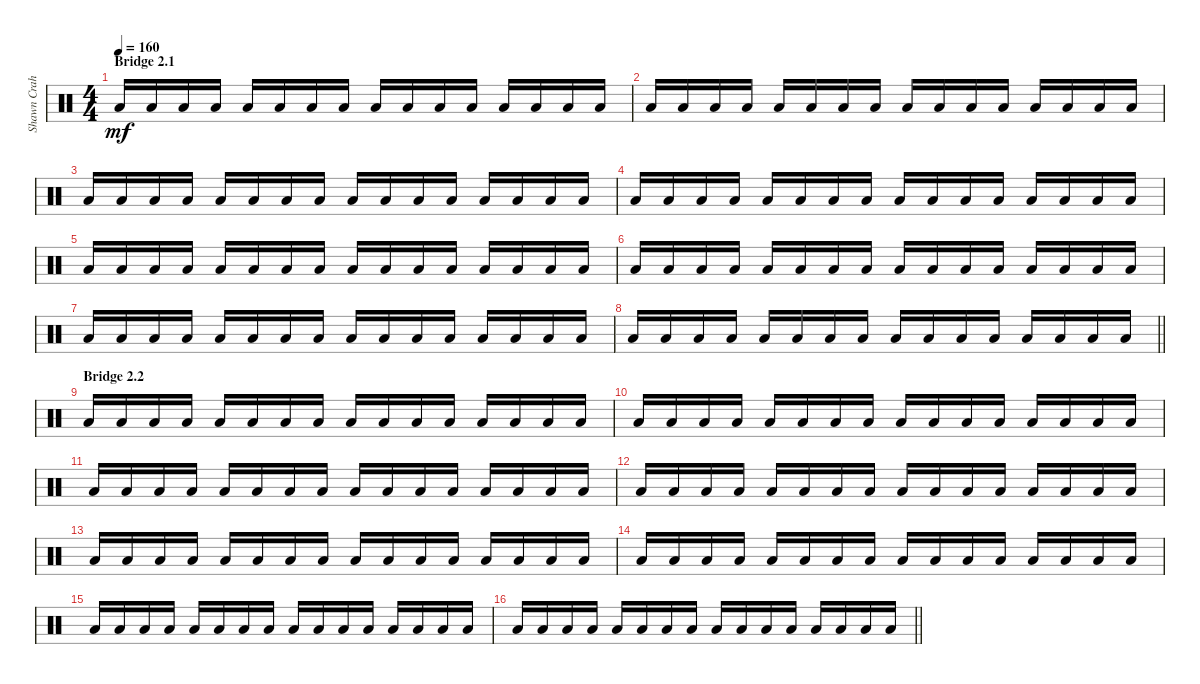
\track ("Shawn Crahan" "Shawn Crah") {instrument percussion}
\staff {score}
\articulation defaults
\ts (4 4)
\section ("" "Bridge 2.1")
\tempo 160
\clef neutral
\ks c "Low Floor Tom (hit)".16{dy mf} "Low Floor Tom (hit)".16 "Low Floor Tom (hit)".16 "Low Floor Tom (hit)".16 "Low Floor Tom (hit)".16 "Low Floor Tom (hit)".16 "Low Floor Tom (hit)".16 "Low Floor Tom (hit)".16 "Low Floor Tom (hit)".16 "Low Floor Tom (hit)".16 "Low Floor Tom (hit)".16 "Low Floor Tom (hit)".16 "Low Floor Tom (hit)".16 "Low Floor Tom (hit)".16 "Low Floor Tom (hit)".16 "Low Floor Tom (hit)".16
|
"Low Floor Tom (hit)".16 "Low Floor Tom (hit)".16 "Low Floor Tom (hit)".16 "Low Floor Tom (hit)".16 "Low Floor Tom (hit)".16 "Low Floor Tom (hit)".16 "Low Floor Tom (hit)".16 "Low Floor Tom (hit)".16 "Low Floor Tom (hit)".16 "Low Floor Tom (hit)".16 "Low Floor Tom (hit)".16 "Low Floor Tom (hit)".16 "Low Floor Tom (hit)".16 "Low Floor Tom (hit)".16 "Low Floor Tom (hit)".16 "Low Floor Tom (hit)".16 |
"Low Floor Tom (hit)".16 "Low Floor Tom (hit)".16 "Low Floor Tom (hit)".16 "Low Floor Tom (hit)".16 "Low Floor Tom (hit)".16 "Low Floor Tom (hit)".16 "Low Floor Tom (hit)".16 "Low Floor Tom (hit)".16 "Low Floor Tom (hit)".16 "Low Floor Tom (hit)".16 "Low Floor Tom (hit)".16 "Low Floor Tom (hit)".16 "Low Floor Tom (hit)".16 "Low Floor Tom (hit)".16 "Low Floor Tom (hit)".16 "Low Floor Tom (hit)".16 |
"Low Floor Tom (hit)".16 "Low Floor Tom (hit)".16 "Low Floor Tom (hit)".16 "Low Floor Tom (hit)".16 "Low Floor Tom (hit)".16 "Low Floor Tom (hit)".16 "Low Floor Tom (hit)".16 "Low Floor Tom (hit)".16 "Low Floor Tom (hit)".16 "Low Floor Tom (hit)".16 "Low Floor Tom (hit)".16 "Low Floor Tom (hit)".16 "Low Floor Tom (hit)".16 "Low Floor Tom (hit)".16 "Low Floor Tom (hit)".16 "Low Floor Tom (hit)".16 |
"Low Floor Tom (hit)".16 "Low Floor Tom (hit)".16 "Low Floor Tom (hit)".16 "Low Floor Tom (hit)".16 "Low Floor Tom (hit)".16 "Low Floor Tom (hit)".16 "Low Floor Tom (hit)".16 "Low Floor Tom (hit)".16 "Low Floor Tom (hit)".16 "Low Floor Tom (hit)".16 "Low Floor Tom (hit)".16 "Low Floor Tom (hit)".16 "Low Floor Tom (hit)".16 "Low Floor Tom (hit)".16 "Low Floor Tom (hit)".16 "Low Floor Tom (hit)".16 |
"Low Floor Tom (hit)".16 "Low Floor Tom (hit)".16 "Low Floor Tom (hit)".16 "Low Floor Tom (hit)".16 "Low Floor Tom (hit)".16 "Low Floor Tom (hit)".16 "Low Floor Tom (hit)".16 "Low Floor Tom (hit)".16 "Low Floor Tom (hit)".16 "Low Floor Tom (hit)".16 "Low Floor Tom (hit)".16 "Low Floor Tom (hit)".16 "Low Floor Tom (hit)".16 "Low Floor Tom (hit)".16 "Low Floor Tom (hit)".16 "Low Floor Tom (hit)".16 |
"Low Floor Tom (hit)".16 "Low Floor Tom (hit)".16 "Low Floor Tom (hit)".16 "Low Floor Tom (hit)".16 "Low Floor Tom (hit)".16 "Low Floor Tom (hit)".16 "Low Floor Tom (hit)".16 "Low Floor Tom (hit)".16 "Low Floor Tom (hit)".16 "Low Floor Tom (hit)".16 "Low Floor Tom (hit)".16 "Low Floor Tom (hit)".16 "Low Floor Tom (hit)".16 "Low Floor Tom (hit)".16 "Low Floor Tom (hit)".16 "Low Floor Tom (hit)".16 |
\barLineRight lightlight "Low Floor Tom (hit)".16 "Low Floor Tom (hit)".16 "Low Floor Tom (hit)".16 "Low Floor Tom (hit)".16 "Low Floor Tom (hit)".16 "Low Floor Tom (hit)".16 "Low Floor Tom (hit)".16 "Low Floor Tom (hit)".16 "Low Floor Tom (hit)".16 "Low Floor Tom (hit)".16 "Low Floor Tom (hit)".16 "Low Floor Tom (hit)".16 "Low Floor Tom (hit)".16 "Low Floor Tom (hit)".16 "Low Floor Tom (hit)".16 "Low Floor Tom (hit)".16
|
\section ("" "Bridge 2.2")
"Low Floor Tom (hit)".16 "Low Floor Tom (hit)".16 "Low Floor Tom (hit)".16 "Low Floor Tom (hit)".16 "Low Floor Tom (hit)".16 "Low Floor Tom (hit)".16 "Low Floor Tom (hit)".16 "Low Floor Tom (hit)".16 "Low Floor Tom (hit)".16 "Low Floor Tom (hit)".16 "Low Floor Tom (hit)".16 "Low Floor Tom (hit)".16 "Low Floor Tom (hit)".16 "Low Floor Tom (hit)".16 "Low Floor Tom (hit)".16 "Low Floor Tom (hit)".16 |
"Low Floor Tom (hit)".16 "Low Floor Tom (hit)".16 "Low Floor Tom (hit)".16 "Low Floor Tom (hit)".16 "Low Floor Tom (hit)".16 "Low Floor Tom (hit)".16 "Low Floor Tom (hit)".16 "Low Floor Tom (hit)".16 "Low Floor Tom (hit)".16 "Low Floor Tom (hit)".16 "Low Floor Tom (hit)".16 "Low Floor Tom (hit)".16 "Low Floor Tom (hit)".16 "Low Floor Tom (hit)".16 "Low Floor Tom (hit)".16 "Low Floor Tom (hit)".16 |
"Low Floor Tom (hit)".16 "Low Floor Tom (hit)".16 "Low Floor Tom (hit)".16 "Low Floor Tom (hit)".16 "Low Floor Tom (hit)".16 "Low Floor Tom (hit)".16 "Low Floor Tom (hit)".16 "Low Floor Tom (hit)".16 "Low Floor Tom (hit)".16 "Low Floor Tom (hit)".16 "Low Floor Tom (hit)".16 "Low Floor Tom (hit)".16 "Low Floor Tom (hit)".16 "Low Floor Tom (hit)".16 "Low Floor Tom (hit)".16 "Low Floor Tom (hit)".16 |
"Low Floor Tom (hit)".16 "Low Floor Tom (hit)".16 "Low Floor Tom (hit)".16 "Low Floor Tom (hit)".16 "Low Floor Tom (hit)".16 "Low Floor Tom (hit)".16 "Low Floor Tom (hit)".16 "Low Floor Tom (hit)".16 "Low Floor Tom (hit)".16 "Low Floor Tom (hit)".16 "Low Floor Tom (hit)".16 "Low Floor Tom (hit)".16 "Low Floor Tom (hit)".16 "Low Floor Tom (hit)".16 "Low Floor Tom (hit)".16 "Low Floor Tom (hit)".16 |
"Low Floor Tom (hit)".16 "Low Floor Tom (hit)".16 "Low Floor Tom (hit)".16 "Low Floor Tom (hit)".16 "Low Floor Tom (hit)".16 "Low Floor Tom (hit)".16 "Low Floor Tom (hit)".16 "Low Floor Tom (hit)".16 "Low Floor Tom (hit)".16 "Low Floor Tom (hit)".16 "Low Floor Tom (hit)".16 "Low Floor Tom (hit)".16 "Low Floor Tom (hit)".16 "Low Floor Tom (hit)".16 "Low Floor Tom (hit)".16 "Low Floor Tom (hit)".16 |
"Low Floor Tom (hit)".16 "Low Floor Tom (hit)".16 "Low Floor Tom (hit)".16 "Low Floor Tom (hit)".16 "Low Floor Tom (hit)".16 "Low Floor Tom (hit)".16 "Low Floor Tom (hit)".16 "Low Floor Tom (hit)".16 "Low Floor Tom (hit)".16 "Low Floor Tom (hit)".16 "Low Floor Tom (hit)".16 "Low Floor Tom (hit)".16 "Low Floor Tom (hit)".16 "Low Floor Tom (hit)".16 "Low Floor Tom (hit)".16 "Low Floor Tom (hit)".16 |
"Low Floor Tom (hit)".16 "Low Floor Tom (hit)".16 "Low Floor Tom (hit)".16 "Low Floor Tom (hit)".16 "Low Floor Tom (hit)".16 "Low Floor Tom (hit)".16 "Low Floor Tom (hit)".16 "Low Floor Tom (hit)".16 "Low Floor Tom (hit)".16 "Low Floor Tom (hit)".16 "Low Floor Tom (hit)".16 "Low Floor Tom (hit)".16 "Low Floor Tom (hit)".16 "Low Floor Tom (hit)".16 "Low Floor Tom (hit)".16 "Low Floor Tom (hit)".16 |
\barLineRight lightlight "Low Floor Tom (hit)".16 "Low Floor Tom (hit)".16 "Low Floor Tom (hit)".16 "Low Floor Tom (hit)".16 "Low Floor Tom (hit)".16 "Low Floor Tom (hit)".16 "Low Floor Tom (hit)".16 "Low Floor Tom (hit)".16 "Low Floor Tom (hit)".16 "Low Floor Tom (hit)".16 "Low Floor Tom (hit)".16 "Low Floor Tom (hit)".16 "Low Floor Tom (hit)".16 "Low Floor Tom (hit)".16 "Low Floor Tom (hit)".16 "Low Floor Tom (hit)".16
